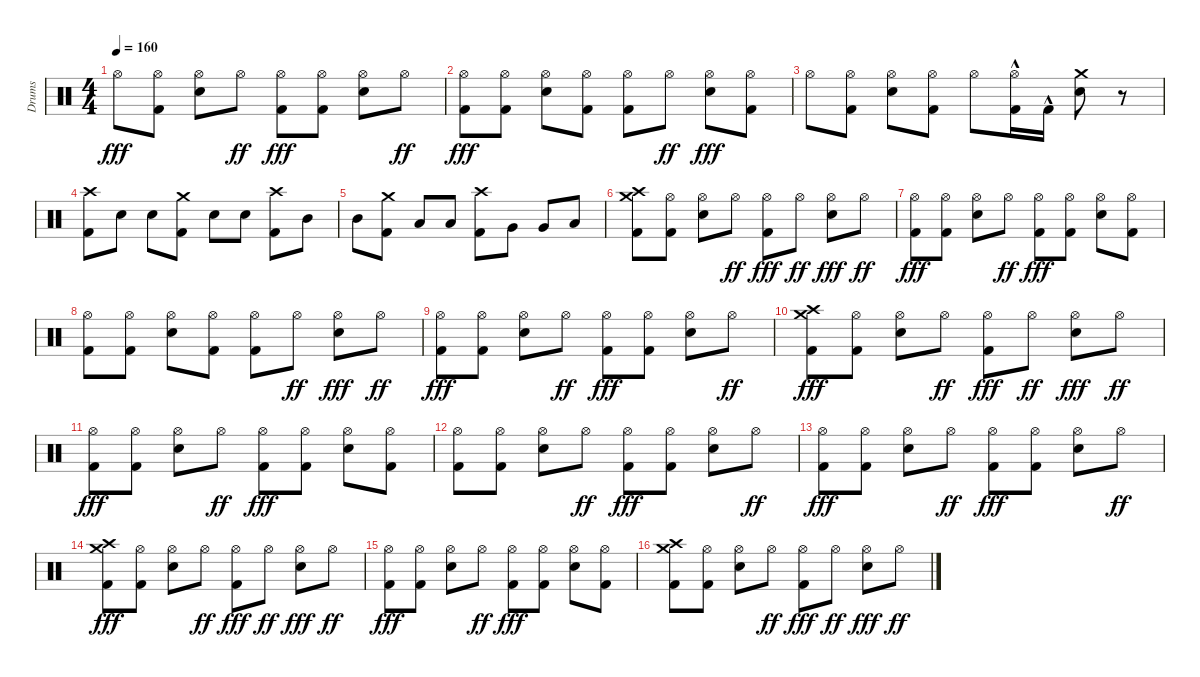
\track ("Drums" "Drums") {instrument percussion}
\staff {score}
\articulation defaults
\ts (4 4)
\tempo 160
\clef neutral
\ks c "Hi-Hat (open)".8{dy fff}
("Hi-Hat (open)" "Kick (hit) 2").8 ("Hi-Hat (open)" "Snare (hit) 2").8 "Hi-Hat (open)".8{dy ff} ("Hi-Hat (open)" "Kick (hit) 2").8{dy fff} ("Hi-Hat (open)" "Kick (hit) 2").8 ("Hi-Hat (open)" "Snare (hit) 2").8 "Hi-Hat (open)".8{dy ff} |
("Hi-Hat (open)" "Kick (hit) 2").8{dy fff} ("Hi-Hat (open)" "Kick (hit) 2").8 ("Hi-Hat (open)" "Snare (hit) 2").8 ("Hi-Hat (open)" "Kick (hit) 2").8 ("Hi-Hat (open)" "Kick (hit) 2").8 "Hi-Hat (open)".8{dy ff} ("Hi-Hat (open)" "Snare (hit) 2").8{dy fff} ("Hi-Hat (open)" "Kick (hit) 2").8 |
"Hi-Hat (open)".8 ("Hi-Hat (open)" "Kick (hit) 2").8 ("Hi-Hat (open)" "Snare (hit) 2").8 ("Hi-Hat (open)" "Kick (hit) 2").8 "Hi-Hat (open)".8 ("Hi-Hat (open)"{hac} "Kick (hit) 2").16 "Kick (hit) 2"{hac}.16 ("Crash medium (hit)" "Snare (hit) 2").8 r.8 |
("Kick (hit) 2" "Crash high (hit)").8 "Snare (hit) 2".8 "Snare (hit) 2".8 ("Crash medium (hit)" "Kick (hit) 2").8 "Snare (hit) 2".8 "Snare (hit) 2".8 ("Crash high (hit)" "Kick (hit) 2").8 "Mid Tom (hit)".8 |
"Mid Tom (hit)".8 ("Crash medium (hit)" "Kick (hit) 2").8 "Low Tom (hit)".8 "Low Tom (hit)".8 ("Crash high (hit)" "Kick (hit) 2").8 "Very Low Tom (hit)".8 "Very Low Tom (hit)".8 "Low Floor Tom (hit)".8 |
("Crash high (hit)" "Crash medium (hit)" "Kick (hit) 2").8 ("Hi-Hat (open)" "Kick (hit) 2").8 ("Hi-Hat (open)" "Snare (hit) 2").8 "Hi-Hat (open)".8{dy ff} ("Hi-Hat (open)" "Kick (hit) 2").8{dy fff} "Hi-Hat (open)".8{dy ff} ("Hi-Hat (open)" "Snare (hit) 2").8{dy fff} "Hi-Hat (open)".8{dy ff} |
("Hi-Hat (open)" "Kick (hit) 2").8{dy fff} ("Hi-Hat (open)" "Kick (hit) 2").8 ("Hi-Hat (open)" "Snare (hit) 2").8 "Hi-Hat (open)".8{dy ff} ("Hi-Hat (open)" "Kick (hit) 2").8{dy fff} ("Hi-Hat (open)" "Kick (hit) 2").8 ("Hi-Hat (open)" "Snare (hit) 2").8 ("Hi-Hat (open)" "Kick (hit) 2").8 |
("Hi-Hat (open)" "Kick (hit) 2").8 ("Hi-Hat (open)" "Kick (hit) 2").8 ("Hi-Hat (open)" "Snare (hit) 2").8 ("Hi-Hat (open)" "Kick (hit) 2").8 ("Hi-Hat (open)" "Kick (hit) 2").8 "Hi-Hat (open)".8{dy ff} ("Hi-Hat (open)" "Snare (hit) 2").8{dy fff} "Hi-Hat (open)".8{dy ff} |
("Hi-Hat (open)" "Kick (hit) 2").8{dy fff} ("Hi-Hat (open)" "Kick (hit) 2").8 ("Hi-Hat (open)" "Snare (hit) 2").8 "Hi-Hat (open)".8{dy ff} ("Hi-Hat (open)" "Kick (hit) 2").8{dy fff} ("Hi-Hat (open)" "Kick (hit) 2").8 ("Hi-Hat (open)" "Snare (hit) 2").8 "Hi-Hat (open)".8{dy ff} |
("Crash high (hit)" "Crash medium (hit)" "Kick (hit) 2").8{dy fff} ("Hi-Hat (open)" "Kick (hit) 2").8 ("Hi-Hat (open)" "Snare (hit) 2").8 "Hi-Hat (open)".8{dy ff} ("Hi-Hat (open)" "Kick (hit) 2").8{dy fff} "Hi-Hat (open)".8{dy ff} ("Hi-Hat (open)" "Snare (hit) 2").8{dy fff} "Hi-Hat (open)".8{dy ff} |
("Hi-Hat (open)" "Kick (hit) 2").8{dy fff} ("Hi-Hat (open)" "Kick (hit) 2").8 ("Hi-Hat (open)" "Snare (hit) 2").8 "Hi-Hat (open)".8{dy ff} ("Hi-Hat (open)" "Kick (hit) 2").8{dy fff} ("Hi-Hat (open)" "Kick (hit) 2").8 ("Hi-Hat (open)" "Snare (hit) 2").8 ("Hi-Hat (open)" "Kick (hit) 2").8 |
("Hi-Hat (open)" "Kick (hit) 2").8 ("Hi-Hat (open)" "Kick (hit) 2").8 ("Hi-Hat (open)" "Snare (hit) 2").8 "Hi-Hat (open)".8{dy ff} ("Hi-Hat (open)" "Kick (hit) 2").8{dy fff} ("Hi-Hat (open)" "Kick (hit) 2").8 ("Hi-Hat (open)" "Snare (hit) 2").8 "Hi-Hat (open)".8{dy ff} |
("Hi-Hat (open)" "Kick (hit) 2").8{dy fff} ("Hi-Hat (open)" "Kick (hit) 2").8 ("Hi-Hat (open)" "Snare (hit) 2").8 "Hi-Hat (open)".8{dy ff} ("Hi-Hat (open)" "Kick (hit) 2").8{dy fff} ("Hi-Hat (open)" "Kick (hit) 2").8 ("Hi-Hat (open)" "Snare (hit) 2").8 "Hi-Hat (open)".8{dy ff} |
("Crash high (hit)" "Crash medium (hit)" "Kick (hit) 2").8{dy fff} ("Hi-Hat (open)" "Kick (hit) 2").8 ("Hi-Hat (open)" "Snare (hit) 2").8 "Hi-Hat (open)".8{dy ff} ("Hi-Hat (open)" "Kick (hit) 2").8{dy fff} "Hi-Hat (open)".8{dy ff} ("Hi-Hat (open)" "Snare (hit) 2").8{dy fff} "Hi-Hat (open)".8{dy ff} |
("Hi-Hat (open)" "Kick (hit) 2").8{dy fff} ("Hi-Hat (open)" "Kick (hit) 2").8 ("Hi-Hat (open)" "Snare (hit) 2").8 "Hi-Hat (open)".8{dy ff} ("Hi-Hat (open)" "Kick (hit) 2").8{dy fff} ("Hi-Hat (open)" "Kick (hit) 2").8 ("Hi-Hat (open)" "Snare (hit) 2").8 ("Hi-Hat (open)" "Kick (hit) 2").8 |
("Crash high (hit)" "Crash medium (hit)" "Kick (hit) 2").8 ("Hi-Hat (open)" "Kick (hit) 2").8 ("Hi-Hat (open)" "Snare (hit) 2").8 "Hi-Hat (open)".8{dy ff} ("Hi-Hat (open)" "Kick (hit) 2").8{dy fff} "Hi-Hat (open)".8{dy ff} ("Hi-Hat (open)" "Snare (hit) 2").8{dy fff} "Hi-Hat (open)".8{dy ff}
